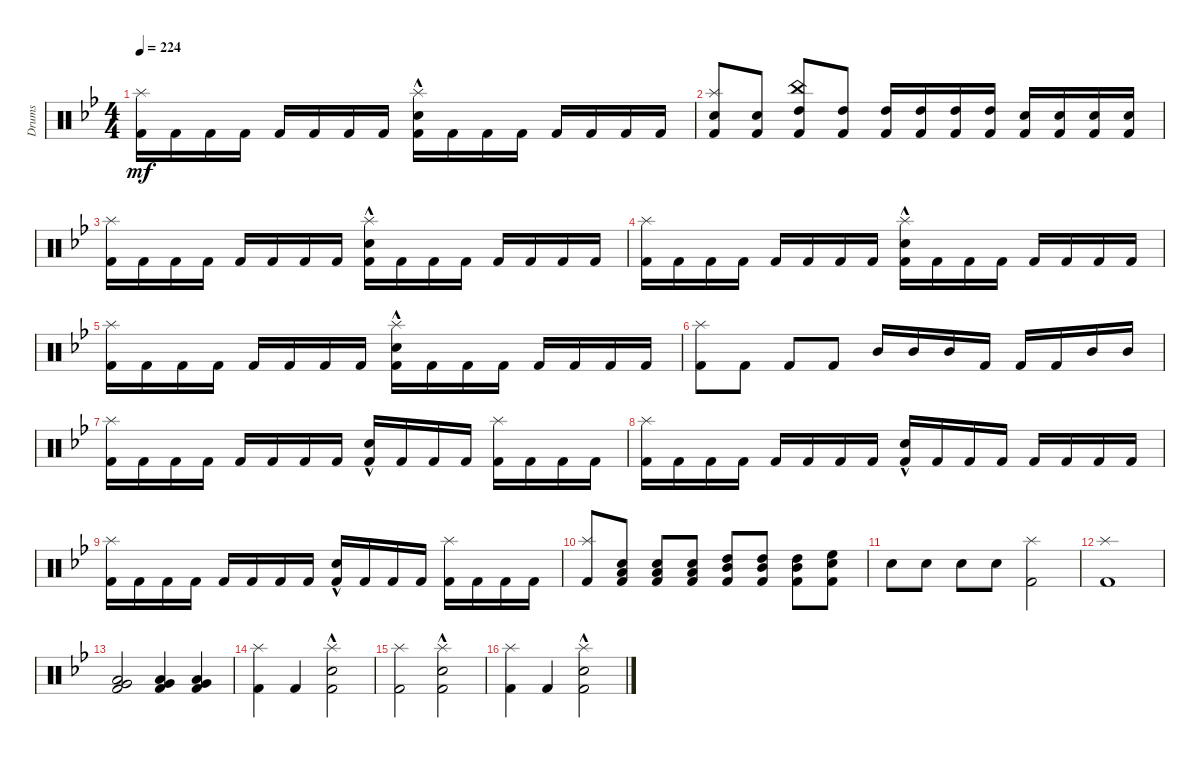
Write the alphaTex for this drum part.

\defaultSystemsLayout 4
\bracketExtendMode groupsimilarinstruments
\otherSystemsTrackNameOrientation horizontal
\track ("Drumkit" "Drums") {instrument percussion}
\staff {score}
\articulation defaults
\ts (4 4)
\tempo 224
\clef neutral
\scale
0.333333
\ks bb
("Splash (hit)"{acc forcenatural} "Kick (hit) 2"{acc forcenatural}).16{dy mf beam Down} "Kick (hit) 2"{acc forcenatural}.16{beam Down} "Kick (hit) 2"{acc forcenatural}.16{beam Down} "Kick (hit) 2"{acc forcenatural}.16{beam Down} "Kick (hit) 2"{acc forcenatural}.16{beam Up} "Kick (hit) 2"{acc forcenatural}.16{beam Up} "Kick (hit) 2"{acc forcenatural}.16{beam Up} "Kick (hit) 2"{acc forcenatural}.16{beam Up} ("Kick (hit) 2"{acc forcenatural} "Snare (hit) 2"{hac acc forcenatural} "Splash (hit)"{acc forcenatural}).16{beam Down} "Kick (hit) 2"{acc forcenatural}.16{beam Down} "Kick (hit) 2"{acc forcenatural}.16{beam Down} "Kick (hit) 2"{acc forcenatural}.16{beam Down} "Kick (hit) 2"{acc forcenatural}.16{beam Up} "Kick (hit) 2"{acc forcenatural}.16{beam Up} "Kick (hit) 2"{acc forcenatural}.16{beam Up} "Kick (hit) 2"{acc forcenatural}.16{beam Up} |
\scale
0.333333 ("Kick (hit) 2"{acc forcenatural} "Snare (hit) 2"{acc forcenatural} "Splash (hit)"{acc forcenatural}).8{beam Up} ("Kick (hit) 2"{acc forcenatural} "Snare (hit) 2"{acc forcenatural}).8{beam Up} ("Kick (hit) 2"{acc forcenatural} "High Tom (hit)"{acc forcenatural} "China (hit)"{acc forcenatural}).8{beam Up} ("Kick (hit) 2"{acc forcenatural} "High Tom (hit)"{acc forcenatural}).8{beam Up} ("Kick (hit) 2"{acc forcenatural} "High Tom (hit)"{acc forcenatural}).16{beam Up} ("Kick (hit) 2"{acc forcenatural} "High Tom (hit)"{acc forcenatural}).16{beam Up} ("Kick (hit) 2"{acc forcenatural} "High Tom (hit)"{acc forcenatural}).16{beam Up} ("Kick (hit) 2"{acc forcenatural} "High Tom (hit)"{acc forcenatural}).16{beam Up} ("Kick (hit) 2"{acc forcenatural} "Snare (hit) 2"{acc forcenatural}).16{beam Up} ("Kick (hit) 2"{acc forcenatural} "Snare (hit) 2"{acc forcenatural}).16{beam Up} ("Kick (hit) 2"{acc forcenatural} "Snare (hit) 2"{acc forcenatural}).16{beam Up} ("Kick (hit) 2"{acc forcenatural} "Snare (hit) 2"{acc forcenatural}).16{beam Up} |
\scale
0.333333 ("Splash (hit)"{acc forcenatural} "Kick (hit) 2"{acc forcenatural}).16{beam Down} "Kick (hit) 2"{acc forcenatural}.16{beam Down} "Kick (hit) 2"{acc forcenatural}.16{beam Down} "Kick (hit) 2"{acc forcenatural}.16{beam Down} "Kick (hit) 2"{acc forcenatural}.16{beam Up} "Kick (hit) 2"{acc forcenatural}.16{beam Up} "Kick (hit) 2"{acc forcenatural}.16{beam Up} "Kick (hit) 2"{acc forcenatural}.16{beam Up} ("Kick (hit) 2"{acc forcenatural} "Snare (hit) 2"{hac acc forcenatural} "Splash (hit)"{acc forcenatural}).16{beam Down} "Kick (hit) 2"{acc forcenatural}.16{beam Down} "Kick (hit) 2"{acc forcenatural}.16{beam Down} "Kick (hit) 2"{acc forcenatural}.16{beam Down} "Kick (hit) 2"{acc forcenatural}.16{beam Up} "Kick (hit) 2"{acc forcenatural}.16{beam Up} "Kick (hit) 2"{acc forcenatural}.16{beam Up} "Kick (hit) 2"{acc forcenatural}.16{beam Up} |
\scale
0.333333 ("Splash (hit)"{acc forcenatural} "Kick (hit) 2"{acc forcenatural}).16{beam Down} "Kick (hit) 2"{acc forcenatural}.16{beam Down} "Kick (hit) 2"{acc forcenatural}.16{beam Down} "Kick (hit) 2"{acc forcenatural}.16{beam Down} "Kick (hit) 2"{acc forcenatural}.16{beam Up} "Kick (hit) 2"{acc forcenatural}.16{beam Up} "Kick (hit) 2"{acc forcenatural}.16{beam Up} "Kick (hit) 2"{acc forcenatural}.16{beam Up} ("Kick (hit) 2"{acc forcenatural} "Snare (hit) 2"{hac acc forcenatural} "Splash (hit)"{acc forcenatural}).16{beam Down} "Kick (hit) 2"{acc forcenatural}.16{beam Down} "Kick (hit) 2"{acc forcenatural}.16{beam Down} "Kick (hit) 2"{acc forcenatural}.16{beam Down} "Kick (hit) 2"{acc forcenatural}.16{beam Up} "Kick (hit) 2"{acc forcenatural}.16{beam Up} "Kick (hit) 2"{acc forcenatural}.16{beam Up} "Kick (hit) 2"{acc forcenatural}.16{beam Up} |
\scale
0.333333 ("Splash (hit)"{acc forcenatural} "Kick (hit) 2"{acc forcenatural}).16{beam Down} "Kick (hit) 2"{acc forcenatural}.16{beam Down} "Kick (hit) 2"{acc forcenatural}.16{beam Down} "Kick (hit) 2"{acc forcenatural}.16{beam Down} "Kick (hit) 2"{acc forcenatural}.16{beam Up} "Kick (hit) 2"{acc forcenatural}.16{beam Up} "Kick (hit) 2"{acc forcenatural}.16{beam Up} "Kick (hit) 2"{acc forcenatural}.16{beam Up} ("Kick (hit) 2"{acc forcenatural} "Snare (hit) 2"{hac acc forcenatural} "Splash (hit)"{acc forcenatural}).16{beam Down} "Kick (hit) 2"{acc forcenatural}.16{beam Down} "Kick (hit) 2"{acc forcenatural}.16{beam Down} "Kick (hit) 2"{acc forcenatural}.16{beam Down} "Kick (hit) 2"{acc forcenatural}.16{beam Up} "Kick (hit) 2"{acc forcenatural}.16{beam Up} "Kick (hit) 2"{acc forcenatural}.16{beam Up} "Kick (hit) 2"{acc forcenatural}.16{beam Up} |
\scale
0.333333 ("Kick (hit) 2"{acc forcenatural} "Splash (hit)"{acc forcenatural}).8{beam Down} "Kick (hit) 2"{acc forcenatural}.8{beam Down} "Kick (hit) 2"{acc forcenatural}.8{beam Up} "Kick (hit) 2"{acc forcenatural}.8{beam Up} "Mid Tom (hit)"{acc forcenatural}.16{beam Up} "Mid Tom (hit)"{acc forcenatural}.16{beam Up} "Mid Tom (hit)"{acc forcenatural}.16{beam Up} "Kick (hit) 2"{acc forcenatural}.16{beam Up} "Kick (hit) 2"{acc forcenatural}.16{beam Up} "Kick (hit) 2"{acc forcenatural}.16{beam Up} "Mid Tom (hit)"{acc forcenatural}.16{beam Up} "Mid Tom (hit)"{acc forcenatural}.16{beam Up} |
\scale
0.333333 ("Splash (hit)"{acc forcenatural} "Kick (hit) 2"{acc forcenatural}).16{beam Down} "Kick (hit) 2"{acc forcenatural}.16{beam Down} "Kick (hit) 2"{acc forcenatural}.16{beam Down} "Kick (hit) 2"{acc forcenatural}.16{beam Down} "Kick (hit) 2"{acc forcenatural}.16{beam Up} "Kick (hit) 2"{acc forcenatural}.16{beam Up} "Kick (hit) 2"{acc forcenatural}.16{beam Up} "Kick (hit) 2"{acc forcenatural}.16{beam Up} ("Kick (hit) 2"{acc forcenatural} "Snare (hit) 2"{hac acc forcenatural}).16{beam Up} "Kick (hit) 2"{acc forcenatural}.16{beam Up} "Kick (hit) 2"{acc forcenatural}.16{beam Up} "Kick (hit) 2"{acc forcenatural}.16{beam Up} ("Kick (hit) 2"{acc forcenatural} "Splash (hit)"{acc forcenatural}).16{beam Down} "Kick (hit) 2"{acc forcenatural}.16{beam Down} "Kick (hit) 2"{acc forcenatural}.16{beam Down} "Kick (hit) 2"{acc forcenatural}.16{beam Down} |
\scale
0.333333 ("Splash (hit)"{acc forcenatural} "Kick (hit) 2"{acc forcenatural}).16{beam Down} "Kick (hit) 2"{acc forcenatural}.16{beam Down} "Kick (hit) 2"{acc forcenatural}.16{beam Down} "Kick (hit) 2"{acc forcenatural}.16{beam Down} "Kick (hit) 2"{acc forcenatural}.16{beam Up} "Kick (hit) 2"{acc forcenatural}.16{beam Up} "Kick (hit) 2"{acc forcenatural}.16{beam Up} "Kick (hit) 2"{acc forcenatural}.16{beam Up} ("Kick (hit) 2"{acc forcenatural} "Snare (hit) 2"{hac acc forcenatural}).16{beam Up} "Kick (hit) 2"{acc forcenatural}.16{beam Up} "Kick (hit) 2"{acc forcenatural}.16{beam Up} "Kick (hit) 2"{acc forcenatural}.16{beam Up} "Kick (hit) 2"{acc forcenatural}.16{beam Up} "Kick (hit) 2"{acc forcenatural}.16{beam Up} "Kick (hit) 2"{acc forcenatural}.16{beam Up} "Kick (hit) 2"{acc forcenatural}.16{beam Up} |
\scale
0.333333 ("Splash (hit)"{acc forcenatural} "Kick (hit) 2"{acc forcenatural}).16{beam Down} "Kick (hit) 2"{acc forcenatural}.16{beam Down} "Kick (hit) 2"{acc forcenatural}.16{beam Down} "Kick (hit) 2"{acc forcenatural}.16{beam Down} "Kick (hit) 2"{acc forcenatural}.16{beam Up} "Kick (hit) 2"{acc forcenatural}.16{beam Up} "Kick (hit) 2"{acc forcenatural}.16{beam Up} "Kick (hit) 2"{acc forcenatural}.16{beam Up} ("Kick (hit) 2"{acc forcenatural} "Snare (hit) 2"{hac acc forcenatural}).16{beam Up} "Kick (hit) 2"{acc forcenatural}.16{beam Up} "Kick (hit) 2"{acc forcenatural}.16{beam Up} "Kick (hit) 2"{acc forcenatural}.16{beam Up} ("Kick (hit) 2"{acc forcenatural} "Splash (hit)"{acc forcenatural}).16{beam Down} "Kick (hit) 2"{acc forcenatural}.16{beam Down} "Kick (hit) 2"{acc forcenatural}.16{beam Down} "Kick (hit) 2"{acc forcenatural}.16{beam Down} |
\scale
0.333333 ("Splash (hit)"{acc forcenatural} "Kick (hit) 2"{acc forcenatural}).8{beam Up} ("Kick (hit) 2"{acc forcenatural} "Low Tom (hit)"{acc forcenatural} "Snare (hit) 2"{acc forcenatural}).8{beam Up} ("Kick (hit) 2"{acc forcenatural} "Low Tom (hit)"{acc forcenatural} "Snare (hit) 2"{acc forcenatural}).8{beam Up} ("Kick (hit) 2"{acc forcenatural} "Low Tom (hit)"{acc forcenatural} "Snare (hit) 2"{acc forcenatural}).8{beam Up} ("Kick (hit) 2"{acc forcenatural} "Mid Tom (hit)"{acc forcenatural} "High Tom (hit)"{acc forcenatural}).8{beam Up} ("Kick (hit) 2"{acc forcenatural} "Mid Tom (hit)"{acc forcenatural} "High Tom (hit)"{acc forcenatural}).8{beam Up} ("Kick (hit) 2"{acc forcenatural} "Mid Tom (hit)"{acc forcenatural} "High Tom (hit)"{acc forcenatural}).8{beam Down} ("Kick (hit) 2"{acc forcenatural} "Snare (hit) 2"{acc forcenatural} "High Floor Tom (hit)"{acc forcenatural}).8{beam Down} |
\scale
0.333333 "Snare (hit) 2"{acc forcenatural}.8{beam Down} "Snare (hit) 2"{acc forcenatural}.8{beam Down} "Snare (hit) 2"{acc forcenatural}.8{beam Down} "Snare (hit) 2"{acc forcenatural}.8{beam Down} ("Splash (hit)"{acc forcenatural} "Kick (hit) 2"{acc forcenatural}).2{beam Down} |
\scale
0.333333 ("Splash (hit)"{acc forcenatural} "Kick (hit) 2"{acc forcenatural}).1{beam Down} |
\scale
0.333333 ("Kick (hit) 2"{acc forcenatural} "Very Low Tom (hit)"{acc forcenatural} "Low Tom (hit)"{acc forcenatural}).2{beam Up} ("Kick (hit) 2"{acc forcenatural} "Very Low Tom (hit)"{acc forcenatural} "Low Tom (hit)"{acc forcenatural}).4{beam Up} ("Kick (hit) 2"{acc forcenatural} "Very Low Tom (hit)"{acc forcenatural} "Low Tom (hit)"{acc forcenatural}).4{beam Up} |
\scale
0.333333 ("Splash (hit)"{acc forcenatural} "Kick (hit) 2"{acc forcenatural}).4{beam Down} "Kick (hit) 2"{acc forcenatural}.4{beam Up} ("Kick (hit) 2"{acc forcenatural} "Splash (hit)"{acc forcenatural} "Snare (hit) 2"{hac acc forcenatural}).2{beam Down} |
\scale
0.333333 ("Splash (hit)"{acc forcenatural} "Kick (hit) 2"{acc forcenatural}).2{beam Down} ("Snare (hit) 2"{hac acc forcenatural} "Kick (hit) 2"{acc forcenatural} "Splash (hit)"{acc forcenatural}).2{beam Down} |
\scale
0.333333 ("Splash (hit)"{acc forcenatural} "Kick (hit) 2"{acc forcenatural}).4{beam Down} "Kick (hit) 2"{acc forcenatural}.4{beam Up} ("Kick (hit) 2"{acc forcenatural} "Splash (hit)"{acc forcenatural} "Snare (hit) 2"{hac acc forcenatural}).2{beam Down}
